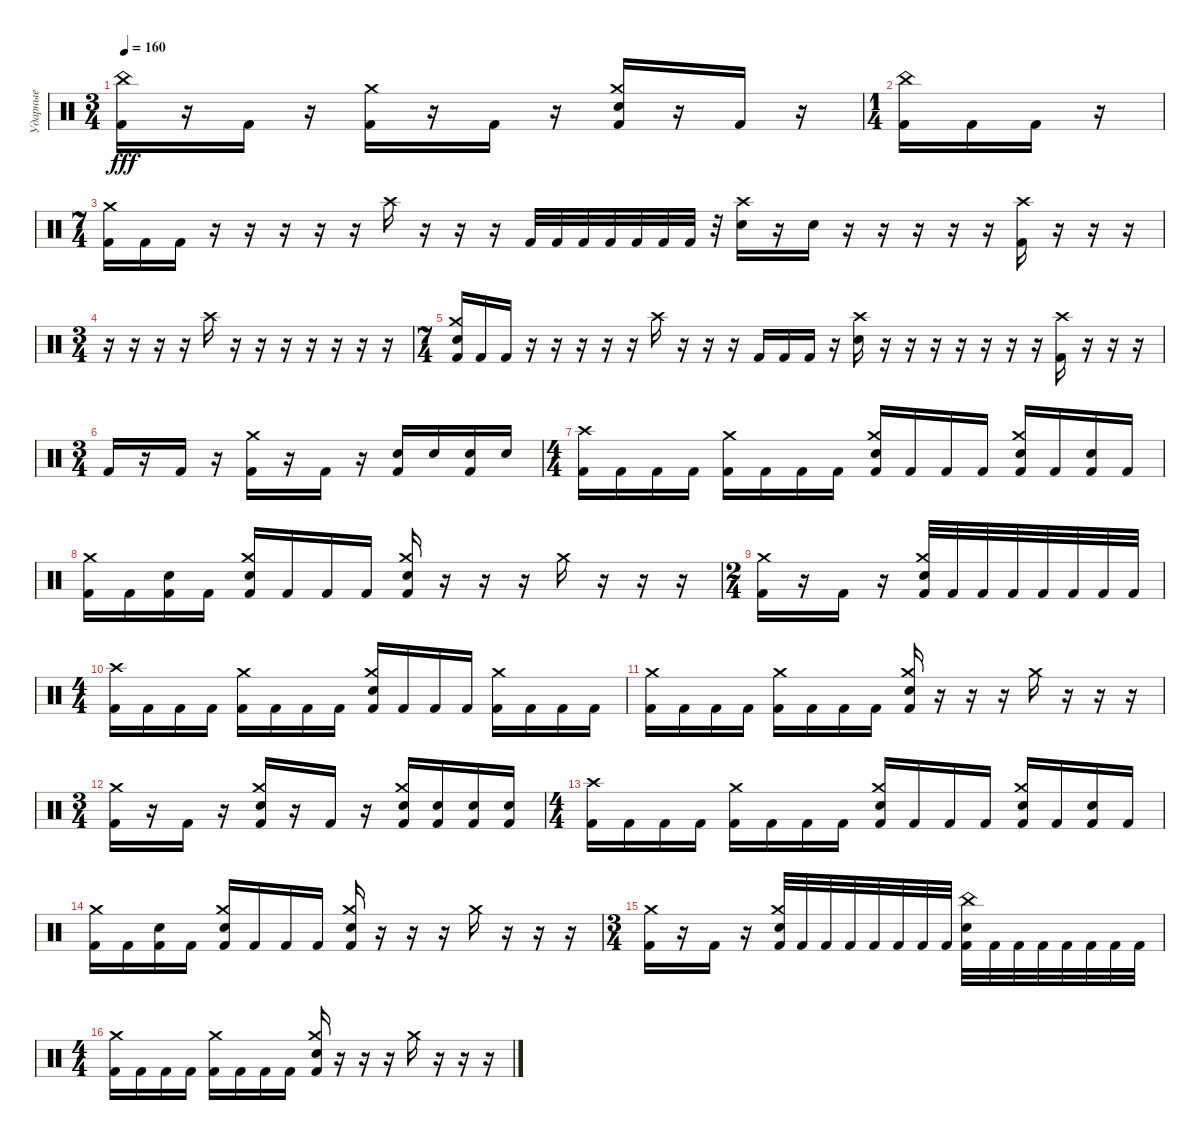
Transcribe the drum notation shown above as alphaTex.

\track ("Ударные" "Ударные") {instrument percussion}
\staff {score}
\articulation defaults
\ts (3 4)
\tempo 160
\clef neutral
\ks c
("China (hit)" "Kick (hit) 2").16{dy fff} r.16 "Kick (hit) 2".16 r.16 ("Crash medium (hit)" "Kick (hit) 2").16 r.16 "Kick (hit) 2".16 r.16 ("Crash medium (hit)" "Snare (hit) 2" "Kick (hit) 2").16 r.16 "Kick (hit) 2".16 r.16 |
\ts (1 4)
("China (hit)" "Kick (hit) 2").16 "Kick (hit) 2".16 "Kick (hit) 2".16 r.16 |
\ts (7 4)
("Crash medium (hit)" "Kick (hit) 2").16 "Kick (hit) 2".16 "Kick (hit) 2".16 r.16 r.16 r.16 r.16 r.16 "Crash high (hit)".16 r.16 r.16 r.16 "Kick (hit) 2".32 "Kick (hit) 2".32 "Kick (hit) 2".32 "Kick (hit) 2".32 "Kick (hit) 2".32 "Kick (hit) 2".32 "Kick (hit) 2".32 r.32 ("Crash high (hit)" "Snare (hit) 2").16 r.16 "Snare (hit) 2".16 r.16 r.16 r.16 r.16 r.16 ("Crash high (hit)" "Kick (hit) 2").16 r.16 r.16 r.16 |
\ts (3 4)
r.16 r.16 r.16 r.16 "Crash high (hit)".16 r.16 r.16 r.16 r.16 r.16 r.16 r.16 |
\ts (7 4)
("Crash medium (hit)" "Snare (hit) 2" "Kick (hit) 2").16 "Kick (hit) 2".16 "Kick (hit) 2".16 r.16 r.16 r.16 r.16 r.16 "Crash high (hit)".16 r.16 r.16 r.16 "Kick (hit) 2".16 "Kick (hit) 2".16 "Kick (hit) 2".16 r.16 ("Crash high (hit)" "Snare (hit) 2").16 r.16 r.16 r.16 r.16 r.16 r.16 r.16 ("Crash high (hit)" "Kick (hit) 2").16 r.16 r.16 r.16 |
\ts (3 4)
"Kick (hit) 2".16 r.16 "Kick (hit) 2".16 r.16 ("Crash medium (hit)" "Kick (hit) 2").16 r.16 "Kick (hit) 2".16 r.16 ("Snare (hit) 2" "Kick (hit) 2").16 "Snare (hit) 2".16 ("Snare (hit) 2" "Kick (hit) 2").16 "Snare (hit) 2".16 |
\ts (4 4)
("Crash high (hit)" "Kick (hit) 2").16 "Kick (hit) 2".16 "Kick (hit) 2".16 "Kick (hit) 2".16 ("Crash medium (hit)" "Kick (hit) 2").16 "Kick (hit) 2".16 "Kick (hit) 2".16 "Kick (hit) 2".16 ("Crash medium (hit)" "Snare (hit) 2" "Kick (hit) 2").16 "Kick (hit) 2".16 "Kick (hit) 2".16 "Kick (hit) 2".16 ("Crash medium (hit)" "Snare (hit) 2" "Kick (hit) 2").16 "Kick (hit) 2".16 ("Snare (hit) 2" "Kick (hit) 2").16 "Kick (hit) 2".16 |
("Crash medium (hit)" "Kick (hit) 2").16 "Kick (hit) 2".16 ("Snare (hit) 2" "Kick (hit) 2").16 "Kick (hit) 2".16 ("Crash medium (hit)" "Snare (hit) 2" "Kick (hit) 2").16 "Kick (hit) 2".16 "Kick (hit) 2".16 "Kick (hit) 2".16 ("Crash medium (hit)" "Snare (hit) 2" "Kick (hit) 2").16 r.16 r.16 r.16 "Crash medium (hit)".16 r.16 r.16 r.16 |
\ts (2 4)
("Crash medium (hit)" "Kick (hit) 2").16 r.16 "Kick (hit) 2".16 r.16 ("Crash medium (hit)" "Snare (hit) 2" "Kick (hit) 2").32 "Kick (hit) 2".32 "Kick (hit) 2".32 "Kick (hit) 2".32 "Kick (hit) 2".32 "Kick (hit) 2".32 "Kick (hit) 2".32 "Kick (hit) 2".32 |
\ts (4 4)
("Crash high (hit)" "Kick (hit) 2").16 "Kick (hit) 2".16 "Kick (hit) 2".16 "Kick (hit) 2".16 ("Crash medium (hit)" "Kick (hit) 2").16 "Kick (hit) 2".16 "Kick (hit) 2".16 "Kick (hit) 2".16 ("Crash medium (hit)" "Snare (hit) 2" "Kick (hit) 2").16 "Kick (hit) 2".16 "Kick (hit) 2".16 "Kick (hit) 2".16 ("Crash medium (hit)" "Kick (hit) 2").16 "Kick (hit) 2".16 "Kick (hit) 2".16 "Kick (hit) 2".16 |
("Crash medium (hit)" "Kick (hit) 2").16 "Kick (hit) 2".16 "Kick (hit) 2".16 "Kick (hit) 2".16 ("Crash medium (hit)" "Kick (hit) 2").16 "Kick (hit) 2".16 "Kick (hit) 2".16 "Kick (hit) 2".16 ("Crash medium (hit)" "Snare (hit) 2" "Kick (hit) 2").16 r.16 r.16 r.16 "Crash medium (hit)".16 r.16 r.16 r.16 |
\ts (3 4)
("Crash medium (hit)" "Kick (hit) 2").16 r.16 "Kick (hit) 2".16 r.16 ("Crash medium (hit)" "Snare (hit) 2" "Kick (hit) 2").16 r.16 "Kick (hit) 2".16 r.16 ("Crash medium (hit)" "Snare (hit) 2" "Kick (hit) 2").16 ("Snare (hit) 2" "Kick (hit) 2").16 ("Snare (hit) 2" "Kick (hit) 2").16 ("Snare (hit) 2" "Kick (hit) 2").16 |
\ts (4 4)
("Crash high (hit)" "Kick (hit) 2").16 "Kick (hit) 2".16 "Kick (hit) 2".16 "Kick (hit) 2".16 ("Crash medium (hit)" "Kick (hit) 2").16 "Kick (hit) 2".16 "Kick (hit) 2".16 "Kick (hit) 2".16 ("Crash medium (hit)" "Snare (hit) 2" "Kick (hit) 2").16 "Kick (hit) 2".16 "Kick (hit) 2".16 "Kick (hit) 2".16 ("Crash medium (hit)" "Snare (hit) 2" "Kick (hit) 2").16 "Kick (hit) 2".16 ("Snare (hit) 2" "Kick (hit) 2").16 "Kick (hit) 2".16 |
("Crash medium (hit)" "Kick (hit) 2").16 "Kick (hit) 2".16 ("Snare (hit) 2" "Kick (hit) 2").16 "Kick (hit) 2".16 ("Crash medium (hit)" "Snare (hit) 2" "Kick (hit) 2").16 "Kick (hit) 2".16 "Kick (hit) 2".16 "Kick (hit) 2".16 ("Crash medium (hit)" "Snare (hit) 2" "Kick (hit) 2").16 r.16 r.16 r.16 "Crash medium (hit)".16 r.16 r.16 r.16 |
\ts (3 4)
("Crash medium (hit)" "Kick (hit) 2").16 r.16 "Kick (hit) 2".16 r.16 ("Crash medium (hit)" "Snare (hit) 2" "Kick (hit) 2").32 "Kick (hit) 2".32 "Kick (hit) 2".32 "Kick (hit) 2".32 "Kick (hit) 2".32 "Kick (hit) 2".32 "Kick (hit) 2".32 "Kick (hit) 2".32 ("China (hit)" "Snare (hit) 2" "Kick (hit) 2").32 "Kick (hit) 2".32 "Kick (hit) 2".32 "Kick (hit) 2".32 "Kick (hit) 2".32 "Kick (hit) 2".32 "Kick (hit) 2".32 "Kick (hit) 2".32 |
\ts (4 4)
("Crash medium (hit)" "Kick (hit) 2").16 "Kick (hit) 2".16 "Kick (hit) 2".16 "Kick (hit) 2".16 ("Crash medium (hit)" "Kick (hit) 2").16 "Kick (hit) 2".16 "Kick (hit) 2".16 "Kick (hit) 2".16 ("Crash medium (hit)" "Snare (hit) 2" "Kick (hit) 2").16 r.16 r.16 r.16 "Crash medium (hit)".16 r.16 r.16 r.16
